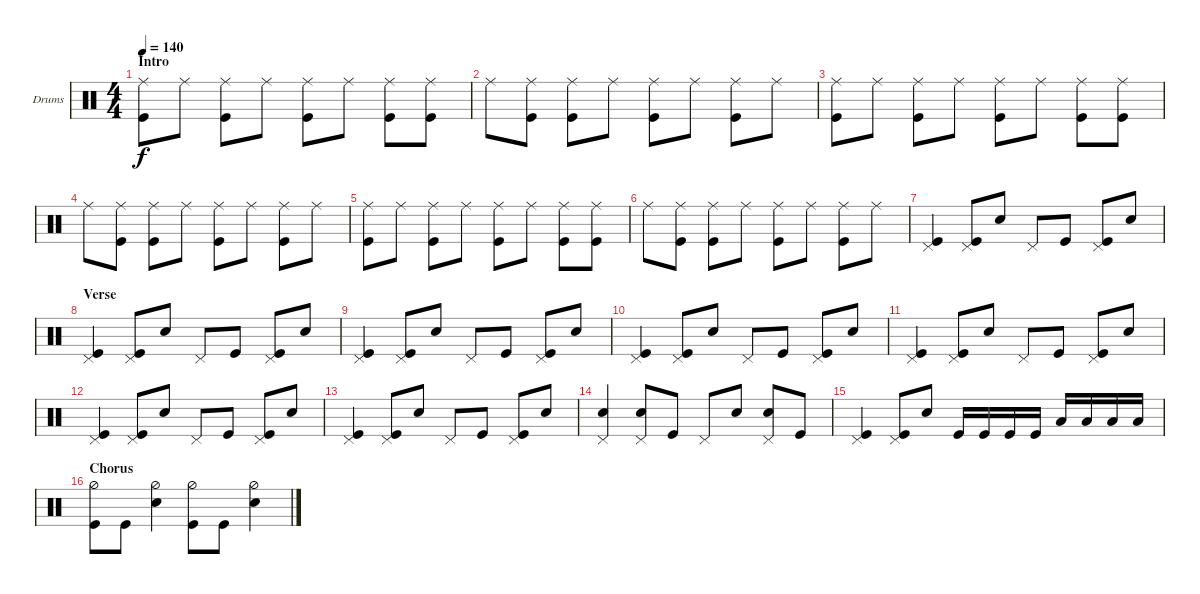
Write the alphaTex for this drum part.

\defaultSystemsLayout 4
\bracketExtendMode groupsimilarinstruments
\firstSystemTrackNameOrientation horizontal
\otherSystemsTrackNameOrientation horizontal
\track ("Drumkit" "Drums") {instrument percussion}
\staff {score}
\articulation defaults
\ts (4 4)
\section ("" "Intro")
\tempo 140
\clef neutral
\ks c
("Ride (middle)" "Kick (hit)").8{dy f} "Ride (middle)".8 ("Ride (middle)" "Kick (hit)").8 "Ride (middle)".8 ("Ride (middle)" "Kick (hit)").8 "Ride (middle)".8 ("Ride (middle)" "Kick (hit)").8 ("Ride (middle)" "Kick (hit)").8 |
"Ride (middle)".8 ("Ride (middle)" "Kick (hit)").8 ("Ride (middle)" "Kick (hit)").8 "Ride (middle)".8 ("Ride (middle)" "Kick (hit)").8 "Ride (middle)".8 ("Ride (middle)" "Kick (hit)").8 "Ride (middle)".8 |
("Ride (middle)" "Kick (hit)").8 "Ride (middle)".8 ("Ride (middle)" "Kick (hit)").8 "Ride (middle)".8 ("Ride (middle)" "Kick (hit)").8 "Ride (middle)".8 ("Ride (middle)" "Kick (hit)").8 ("Ride (middle)" "Kick (hit)").8 |
"Ride (middle)".8 ("Ride (middle)" "Kick (hit)").8 ("Ride (middle)" "Kick (hit)").8 "Ride (middle)".8 ("Ride (middle)" "Kick (hit)").8 "Ride (middle)".8 ("Ride (middle)" "Kick (hit)").8 "Ride (middle)".8 |
("Ride (middle)" "Kick (hit)").8 "Ride (middle)".8 ("Ride (middle)" "Kick (hit)").8 "Ride (middle)".8 ("Ride (middle)" "Kick (hit)").8 "Ride (middle)".8 ("Ride (middle)" "Kick (hit)").8 ("Ride (middle)" "Kick (hit)").8 |
"Ride (middle)".8 ("Ride (middle)" "Kick (hit)").8 ("Ride (middle)" "Kick (hit)").8 "Ride (middle)".8 ("Ride (middle)" "Kick (hit)").8 "Ride (middle)".8 ("Ride (middle)" "Kick (hit)").8 "Ride (middle)".8 |
("Kick (hit)" "Pedal Hi-Hat (hit)").4 ("Kick (hit)" "Pedal Hi-Hat (hit)").8 "Snare (hit) 2".8 "Pedal Hi-Hat (hit)".8 "Kick (hit)".8 ("Kick (hit)" "Pedal Hi-Hat (hit)").8 "Snare (hit) 2".8 |
\section ("" "Verse")
("Kick (hit)" "Pedal Hi-Hat (hit)").4 ("Kick (hit)" "Pedal Hi-Hat (hit)").8 "Snare (hit) 2".8 "Pedal Hi-Hat (hit)".8 "Kick (hit)".8 ("Kick (hit)" "Pedal Hi-Hat (hit)").8 "Snare (hit) 2".8 |
("Kick (hit)" "Pedal Hi-Hat (hit)").4 ("Kick (hit)" "Pedal Hi-Hat (hit)").8 "Snare (hit) 2".8 "Pedal Hi-Hat (hit)".8 "Kick (hit)".8 ("Kick (hit)" "Pedal Hi-Hat (hit)").8 "Snare (hit) 2".8 |
("Kick (hit)" "Pedal Hi-Hat (hit)").4 ("Kick (hit)" "Pedal Hi-Hat (hit)").8 "Snare (hit) 2".8 "Pedal Hi-Hat (hit)".8 "Kick (hit)".8 ("Kick (hit)" "Pedal Hi-Hat (hit)").8 "Snare (hit) 2".8 |
("Kick (hit)" "Pedal Hi-Hat (hit)").4 ("Kick (hit)" "Pedal Hi-Hat (hit)").8 "Snare (hit) 2".8 "Pedal Hi-Hat (hit)".8 "Kick (hit)".8 ("Kick (hit)" "Pedal Hi-Hat (hit)").8 "Snare (hit) 2".8 |
("Kick (hit)" "Pedal Hi-Hat (hit)").4 ("Kick (hit)" "Pedal Hi-Hat (hit)").8 "Snare (hit) 2".8 "Pedal Hi-Hat (hit)".8 "Kick (hit)".8 ("Kick (hit)" "Pedal Hi-Hat (hit)").8 "Snare (hit) 2".8 |
("Kick (hit)" "Pedal Hi-Hat (hit)").4 ("Kick (hit)" "Pedal Hi-Hat (hit)").8 "Snare (hit) 2".8 "Pedal Hi-Hat (hit)".8 "Kick (hit)".8 ("Kick (hit)" "Pedal Hi-Hat (hit)").8 "Snare (hit) 2".8 |
("Pedal Hi-Hat (hit)" "Snare (hit) 2").4 ("Pedal Hi-Hat (hit)" "Snare (hit) 2").8 "Kick (hit)".8 "Pedal Hi-Hat (hit)".8 "Snare (hit) 2".8 ("Pedal Hi-Hat (hit)" "Snare (hit) 2").8 "Kick (hit)".8 |
("Kick (hit)" "Pedal Hi-Hat (hit)").4 ("Kick (hit)" "Pedal Hi-Hat (hit)").8 "Snare (hit) 2".8 "Kick (hit)".16 "Kick (hit)".16 "Kick (hit)".16 "Kick (hit)".16 "Low Tom (hit)".16 "Low Tom (hit)".16 "Low Tom (hit)".16 "Low Tom (hit)".16 |
\section ("" "Chorus")
("Kick (hit)" "Hi-Hat (half)").8 "Kick (hit)".8 ("Snare (hit) 2" "Hi-Hat (half)").4 ("Kick (hit)" "Hi-Hat (half)").8 "Kick (hit)".8 ("Snare (hit) 2" "Hi-Hat (half)").4
